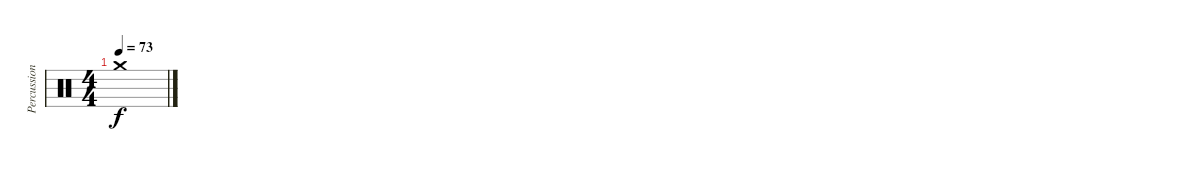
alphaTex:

\track ("Percussion" "Percussion") {instrument percussion}
\staff {score}
\articulation defaults
\ts (4 4)
\tempo 73
\clef neutral
\ks c "Crash medium (hit)".1{dy f}
